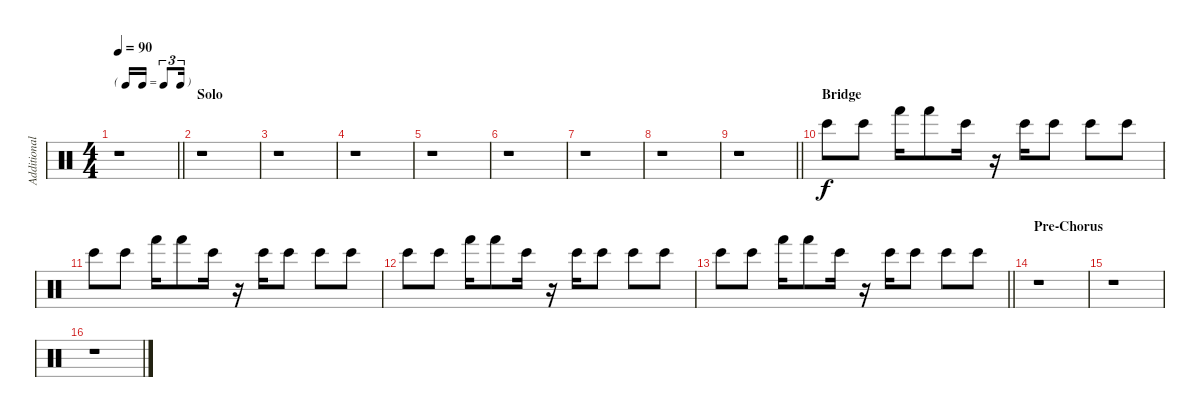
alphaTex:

\track ("Additional Percussion" "Additional") {instrument percussion}
\staff {score}
\articulation defaults
\ts (4 4)
\tf triplet16th
\tempo 90
\clef neutral
\barLineRight lightlight
\ks c
r.1{dy f} |
\section ("" "Solo")
r.1 |
r.1 |
r.1 |
r.1 |
r.1 |
r.1 |
r.1 |
\barLineRight lightlight
r.1 |
\section ("" "Bridge")
"Bongo High (hit)".8 "Bongo High (hit)".8 "Hand (hit)".16 "Hand (hit)".8 "Bongo High (hit)".16 r.16 "Bongo High (hit)".16 "Bongo High (hit)".8 "Bongo High (hit)".8 "Bongo High (hit)".8 |
"Bongo High (hit)".8 "Bongo High (hit)".8 "Hand (hit)".16 "Hand (hit)".8 "Bongo High (hit)".16 r.16 "Bongo High (hit)".16 "Bongo High (hit)".8 "Bongo High (hit)".8 "Bongo High (hit)".8 |
"Bongo High (hit)".8 "Bongo High (hit)".8 "Hand (hit)".16 "Hand (hit)".8 "Bongo High (hit)".16 r.16 "Bongo High (hit)".16 "Bongo High (hit)".8 "Bongo High (hit)".8 "Bongo High (hit)".8 |
\barLineRight lightlight "Bongo High (hit)".8 "Bongo High (hit)".8 "Hand (hit)".16 "Hand (hit)".8 "Bongo High (hit)".16
r.16 "Bongo High (hit)".16 "Bongo High (hit)".8 "Bongo High (hit)".8 "Bongo High (hit)".8 |
\section ("" "Pre-Chorus")
r.1 |
r.1 |
r.1
